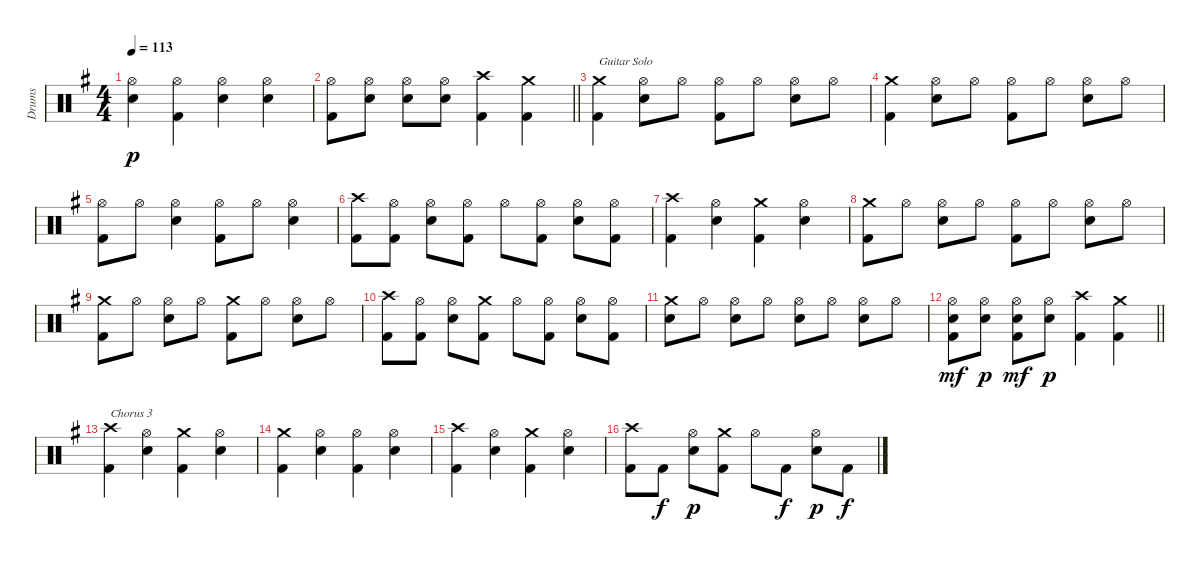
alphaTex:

\track ("Drums" "Drums") {instrument percussion}
\staff {score}
\articulation defaults
\ts (4 4)
\tempo 113
\clef neutral
\ks g
("Hi-Hat (open)" "Electric Snare (hit)").4{dy p} ("Hi-Hat (open)" "Kick (hit) 2").4 ("Hi-Hat (open)" "Electric Snare (hit)").4 ("Hi-Hat (open)" "Electric Snare (hit)").4 |
\barLineRight lightlight
("Kick (hit) 2" "Hi-Hat (open)").8 ("Hi-Hat (open)" "Electric Snare (hit)").8 ("Hi-Hat (open)" "Electric Snare (hit)").8 ("Hi-Hat (open)" "Electric Snare (hit)").8 ("Crash high (hit)" "Kick (hit) 2").4 ("Crash medium (hit)" "Kick (hit) 2").4 |
("Crash medium (hit)" "Kick (hit) 2").4{txt "Guitar Solo"} ("Hi-Hat (open)" "Electric Snare (hit)").8 "Hi-Hat (open)".8 ("Hi-Hat (open)" "Kick (hit) 2").8 "Hi-Hat (open)".8 ("Hi-Hat (open)" "Electric Snare (hit)").8 "Hi-Hat (open)".8 |
("Crash medium (hit)" "Kick (hit) 2").4 ("Hi-Hat (open)" "Electric Snare (hit)").8 "Hi-Hat (open)".8 ("Hi-Hat (open)" "Kick (hit) 2").8 "Hi-Hat (open)".8 ("Hi-Hat (open)" "Electric Snare (hit)").8 "Hi-Hat (open)".8 |
("Hi-Hat (open)" "Kick (hit) 2").8 "Hi-Hat (open)".8 ("Hi-Hat (open)" "Electric Snare (hit)").4 ("Hi-Hat (open)" "Kick (hit) 2").8 "Hi-Hat (open)".8 ("Hi-Hat (open)" "Electric Snare (hit)").4 |
("Kick (hit) 2" "Crash high (hit)").8 ("Kick (hit) 2" "Hi-Hat (open)").8 ("Electric Snare (hit)" "Hi-Hat (open)").8 ("Kick (hit) 2" "Hi-Hat (open)").8 "Hi-Hat (open)".8 ("Kick (hit) 2" "Hi-Hat (open)").8 ("Electric Snare (hit)" "Hi-Hat (open)").8 ("Kick (hit) 2" "Hi-Hat (open)").8 |
("Crash high (hit)" "Kick (hit) 2").4 ("Hi-Hat (open)" "Electric Snare (hit)").4 ("Crash medium (hit)" "Kick (hit) 2").4 ("Hi-Hat (open)" "Electric Snare (hit)").4 |
("Crash medium (hit)" "Kick (hit) 2").8 "Hi-Hat (open)".8 ("Hi-Hat (open)" "Electric Snare (hit)").8 "Hi-Hat (open)".8 ("Hi-Hat (open)" "Kick (hit) 2").8 "Hi-Hat (open)".8 ("Hi-Hat (open)" "Electric Snare (hit)").8 "Hi-Hat (open)".8 |
("Crash medium (hit)" "Kick (hit) 2").8 "Hi-Hat (open)".8 ("Hi-Hat (open)" "Electric Snare (hit)").8 "Hi-Hat (open)".8 ("Crash medium (hit)" "Kick (hit) 2").8 "Hi-Hat (open)".8 ("Hi-Hat (open)" "Electric Snare (hit)").8 "Hi-Hat (open)".8 |
("Kick (hit) 2" "Crash high (hit)").8 ("Kick (hit) 2" "Hi-Hat (open)").8 ("Electric Snare (hit)" "Hi-Hat (open)").8 ("Kick (hit) 2" "Crash medium (hit)").8 "Hi-Hat (open)".8 ("Kick (hit) 2" "Hi-Hat (open)").8 ("Electric Snare (hit)" "Hi-Hat (open)").8 ("Kick (hit) 2" "Hi-Hat (open)").8 |
("Crash medium (hit)" "Electric Snare (hit)").8 "Hi-Hat (open)".8 ("Hi-Hat (open)" "Electric Snare (hit)").8 "Hi-Hat (open)".8 ("Hi-Hat (open)" "Electric Snare (hit)").8 "Hi-Hat (open)".8 ("Hi-Hat (open)" "Electric Snare (hit)").8 "Hi-Hat (open)".8 |
\barLineRight lightlight
("Electric Snare (hit)" "Hi-Hat (open)" "Kick (hit) 2").8{dy mf} ("Electric Snare (hit)" "Hi-Hat (open)").8{dy p} ("Electric Snare (hit)" "Hi-Hat (open)" "Kick (hit) 2").8{dy mf} ("Electric Snare (hit)" "Hi-Hat (open)").8{dy p} ("Kick (hit) 2" "Crash high (hit)").4 ("Kick (hit) 2" "Crash medium (hit)").4 |
("Crash high (hit)" "Kick (hit) 2").4{txt "Chorus 3"} ("Hi-Hat (open)" "Electric Snare (hit)").4 ("Crash medium (hit)" "Kick (hit) 2").4 ("Hi-Hat (open)" "Electric Snare (hit)").4 |
("Crash medium (hit)" "Kick (hit) 2").4 ("Hi-Hat (open)" "Electric Snare (hit)").4 ("Hi-Hat (open)" "Kick (hit) 2").4 ("Hi-Hat (open)" "Electric Snare (hit)").4 |
("Crash high (hit)" "Kick (hit) 2").4 ("Hi-Hat (open)" "Electric Snare (hit)").4 ("Crash medium (hit)" "Kick (hit) 2").4 ("Hi-Hat (open)" "Electric Snare (hit)").4 |
("Kick (hit) 2" "Crash high (hit)").8 "Kick (hit) 2".8{dy f} ("Electric Snare (hit)" "Hi-Hat (open)").8{dy p} ("Kick (hit) 2" "Crash medium (hit)").8 "Hi-Hat (open)".8 "Kick (hit) 2".8{dy f} ("Electric Snare (hit)" "Hi-Hat (open)").8{dy p} "Kick (hit) 2".8{dy f}
